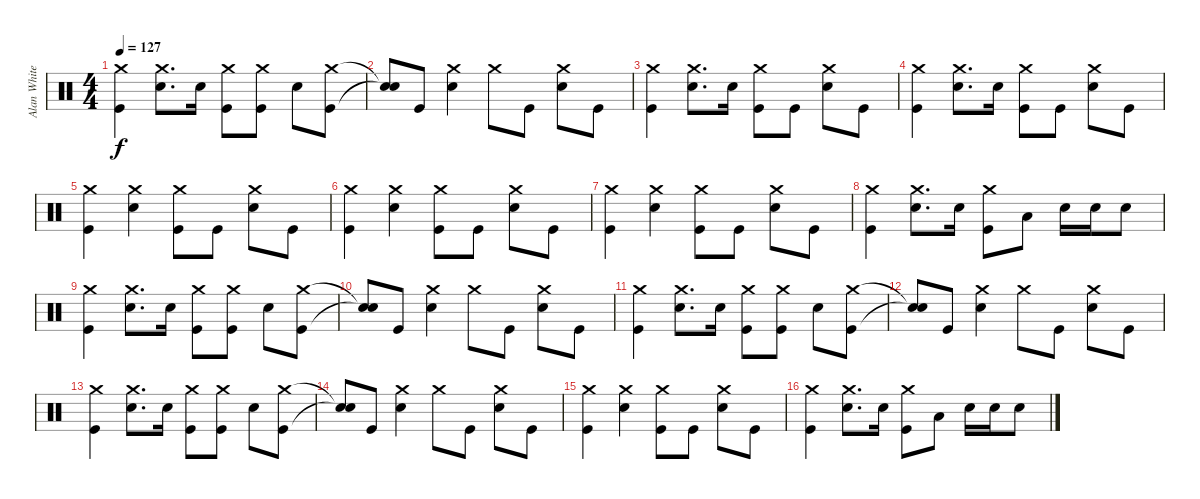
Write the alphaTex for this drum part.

\track ("Alan White (Percussion)" "Alan White") {instrument percussion}
\staff {score}
\articulation defaults
\ts (4 4)
\tempo 127
\clef neutral
\ks c
("Crash medium (hit)" "Kick (hit)").4{dy f} ("Crash medium (hit)" "Snare (hit) 2").8{d} "Snare (hit) 2".16 ("Crash medium (hit)" "Kick (hit)").8 ("Crash medium (hit)" "Kick (hit)").8 "Snare (hit) 2".8 ("Crash medium (hit)" "Kick (hit)").8 |
("Snare (hit)"{t} "Snare (hit)"{t}).8 "Kick (hit)".8 ("Crash medium (hit)" "Snare (hit) 2").4 "Crash medium (hit)".8 "Kick (hit)".8 ("Crash medium (hit)" "Snare (hit) 2").8 "Kick (hit)".8 |
("Crash medium (hit)" "Kick (hit)").4 ("Crash medium (hit)" "Snare (hit) 2").8{d} "Snare (hit) 2".16 ("Crash medium (hit)" "Kick (hit)").8 "Kick (hit)".8 ("Crash medium (hit)" "Snare (hit) 2").8 "Kick (hit)".8 |
("Crash medium (hit)" "Kick (hit)").4 ("Crash medium (hit)" "Snare (hit) 2").8{d} "Snare (hit) 2".16 ("Crash medium (hit)" "Kick (hit)").8 "Kick (hit)".8 ("Crash medium (hit)" "Snare (hit) 2").8 "Kick (hit)".8 |
("Crash medium (hit)" "Kick (hit)").4 ("Crash medium (hit)" "Snare (hit) 2").4 ("Crash medium (hit)" "Kick (hit)").8 "Kick (hit)".8 ("Crash medium (hit)" "Snare (hit) 2").8 "Kick (hit)".8 |
("Crash medium (hit)" "Kick (hit)").4 ("Crash medium (hit)" "Snare (hit) 2").4 ("Crash medium (hit)" "Kick (hit)").8 "Kick (hit)".8 ("Crash medium (hit)" "Snare (hit) 2").8 "Kick (hit)".8 |
("Crash medium (hit)" "Kick (hit)").4 ("Crash medium (hit)" "Snare (hit) 2").4 ("Crash medium (hit)" "Kick (hit)").8 "Kick (hit)".8 ("Crash medium (hit)" "Snare (hit) 2").8 "Kick (hit)".8 |
("Crash medium (hit)" "Kick (hit)").4 ("Crash medium (hit)" "Snare (hit) 2").8{d} "Snare (hit) 2".16 ("Crash medium (hit)" "Kick (hit)").8 "Low Tom (hit)".8 "Snare (hit) 2".16 "Snare (hit) 2".16 "Snare (hit) 2".8 |
("Crash medium (hit)" "Kick (hit)").4 ("Crash medium (hit)" "Snare (hit) 2").8{d} "Snare (hit) 2".16 ("Crash medium (hit)" "Kick (hit)").8 ("Crash medium (hit)" "Kick (hit)").8 "Snare (hit) 2".8 ("Crash medium (hit)" "Kick (hit)").8 |
("Snare (hit)"{t} "Snare (hit)"{t}).8 "Kick (hit)".8 ("Crash medium (hit)" "Snare (hit) 2").4 "Crash medium (hit)".8 "Kick (hit)".8 ("Crash medium (hit)" "Snare (hit) 2").8 "Kick (hit)".8 |
("Crash medium (hit)" "Kick (hit)").4 ("Crash medium (hit)" "Snare (hit) 2").8{d} "Snare (hit) 2".16 ("Crash medium (hit)" "Kick (hit)").8 ("Crash medium (hit)" "Kick (hit)").8 "Snare (hit) 2".8 ("Crash medium (hit)" "Kick (hit)").8 |
("Snare (hit)"{t} "Snare (hit)"{t}).8 "Kick (hit)".8 ("Crash medium (hit)" "Snare (hit) 2").4 "Crash medium (hit)".8 "Kick (hit)".8 ("Crash medium (hit)" "Snare (hit) 2").8 "Kick (hit)".8 |
("Crash medium (hit)" "Kick (hit)").4 ("Crash medium (hit)" "Snare (hit) 2").8{d} "Snare (hit) 2".16 ("Crash medium (hit)" "Kick (hit)").8 ("Crash medium (hit)" "Kick (hit)").8 "Snare (hit) 2".8 ("Crash medium (hit)" "Kick (hit)").8 |
("Snare (hit)"{t} "Snare (hit)"{t}).8 "Kick (hit)".8 ("Crash medium (hit)" "Snare (hit) 2").4 "Crash medium (hit)".8 "Kick (hit)".8 ("Crash medium (hit)" "Snare (hit) 2").8 "Kick (hit)".8 |
("Crash medium (hit)" "Kick (hit)").4 ("Crash medium (hit)" "Snare (hit) 2").4 ("Crash medium (hit)" "Kick (hit)").8 "Kick (hit)".8 ("Crash medium (hit)" "Snare (hit) 2").8 "Kick (hit)".8 |
("Crash medium (hit)" "Kick (hit)").4 ("Crash medium (hit)" "Snare (hit) 2").8{d} "Snare (hit) 2".16 ("Crash medium (hit)" "Kick (hit)").8 "Low Tom (hit)".8 "Snare (hit) 2".16 "Snare (hit) 2".16 "Snare (hit) 2".8
